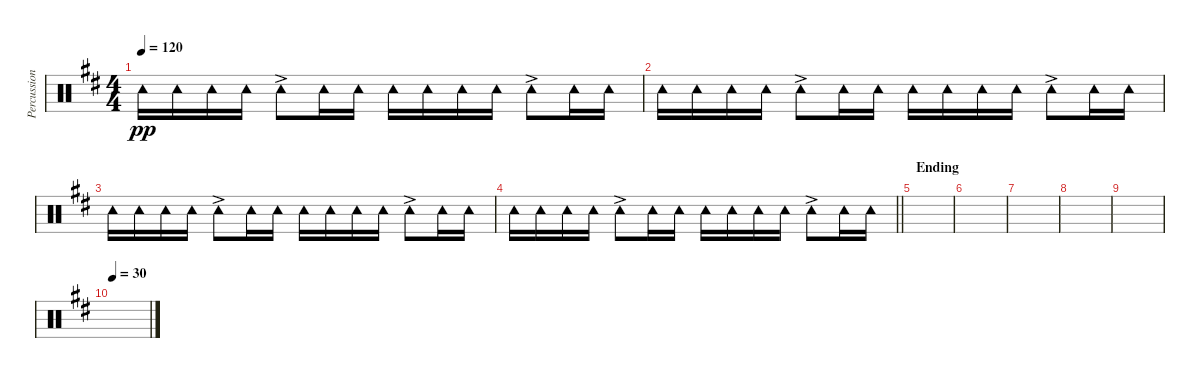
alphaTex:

\track ("Percussion (Tainaka Ritsu)" "Percussion") {instrument percussion}
\staff {score}
\articulation defaults
\ts (4 4)
\tempo 120
\clef neutral
\ks d "Tambourine (hit)".16{dy pp} "Tambourine (hit)".16 "Tambourine (hit)".16 "Tambourine (hit)".16 "Tambourine (hit)"{ac}.8 "Tambourine (hit)".16 "Tambourine (hit)".16 "Tambourine (hit)".16 "Tambourine (hit)".16 "Tambourine (hit)".16 "Tambourine (hit)".16 "Tambourine (hit)"{ac}.8 "Tambourine (hit)".16 "Tambourine (hit)".16
|
"Tambourine (hit)".16 "Tambourine (hit)".16 "Tambourine (hit)".16 "Tambourine (hit)".16 "Tambourine (hit)"{ac}.8 "Tambourine (hit)".16 "Tambourine (hit)".16 "Tambourine (hit)".16 "Tambourine (hit)".16 "Tambourine (hit)".16 "Tambourine (hit)".16 "Tambourine (hit)"{ac}.8 "Tambourine (hit)".16 "Tambourine (hit)".16 |
"Tambourine (hit)".16 "Tambourine (hit)".16 "Tambourine (hit)".16 "Tambourine (hit)".16 "Tambourine (hit)"{ac}.8 "Tambourine (hit)".16 "Tambourine (hit)".16 "Tambourine (hit)".16 "Tambourine (hit)".16 "Tambourine (hit)".16 "Tambourine (hit)".16 "Tambourine (hit)"{ac}.8 "Tambourine (hit)".16 "Tambourine (hit)".16 |
\barLineRight lightlight "Tambourine (hit)".16 "Tambourine (hit)".16 "Tambourine (hit)".16 "Tambourine (hit)".16 "Tambourine (hit)"{ac}.8 "Tambourine (hit)".16 "Tambourine (hit)".16 "Tambourine (hit)".16 "Tambourine (hit)".16 "Tambourine (hit)".16 "Tambourine (hit)".16 "Tambourine (hit)"{ac}.8 "Tambourine (hit)".16 "Tambourine (hit)".16
|
\section ("" "Ending")
|
|
|
|
|
\tempo 30
